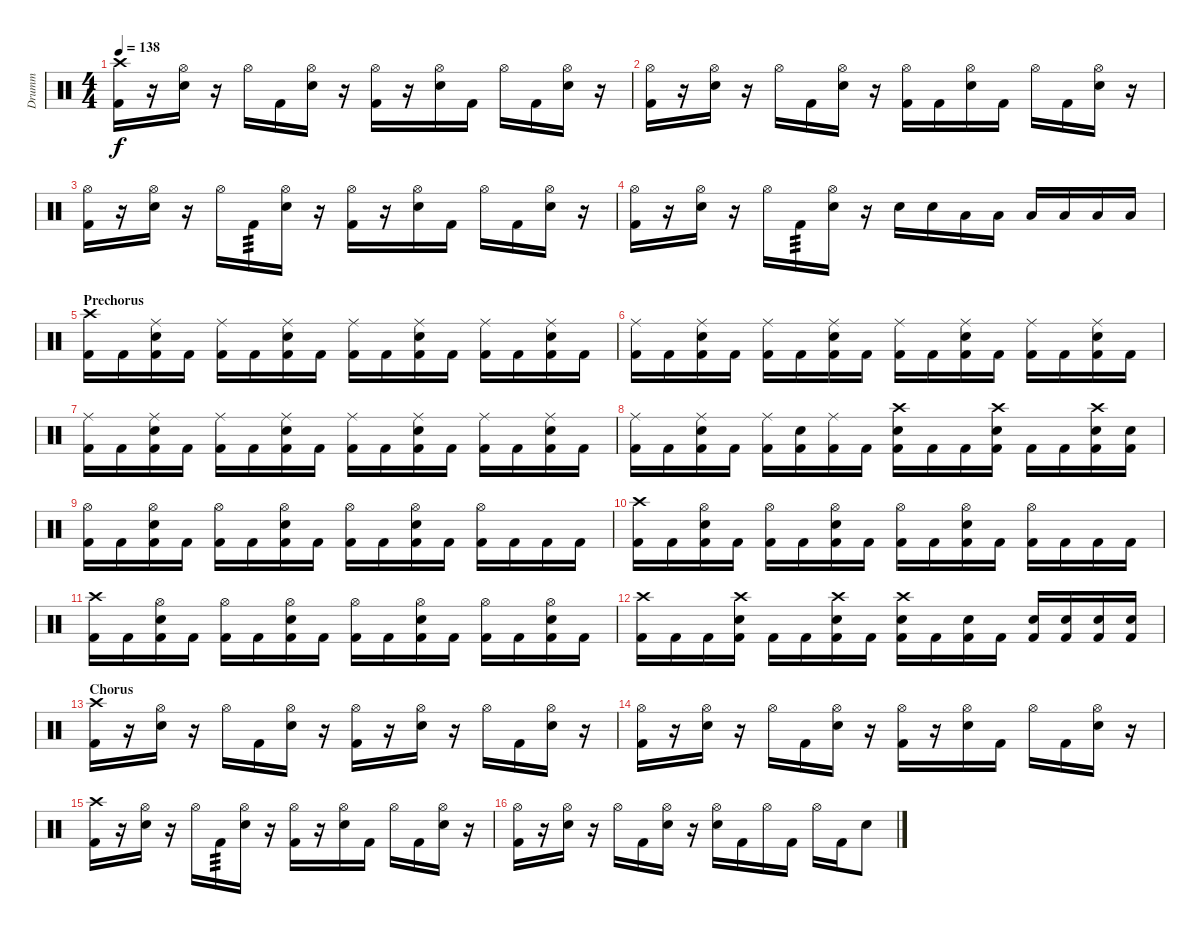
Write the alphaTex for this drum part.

\track ("Drumm" "Drumm") {instrument percussion}
\staff {score}
\articulation defaults
\ts (4 4)
\tempo 138
\clef neutral
\ks c
("Crash high (hit)" "Kick (hit) 2").16{dy f} r.16 ("Hi-Hat (open)" "Snare (hit) 2").16 r.16 "Hi-Hat (open)".16 "Kick (hit) 2".16 ("Hi-Hat (open)" "Snare (hit) 2").16 r.16 ("Hi-Hat (open)" "Kick (hit) 2").16 r.16 ("Hi-Hat (open)" "Snare (hit) 2").16 "Kick (hit) 2".16 "Hi-Hat (open)".16 "Kick (hit) 2".16 ("Hi-Hat (open)" "Snare (hit) 2").16 r.16 |
("Hi-Hat (open)" "Kick (hit) 2").16 r.16 ("Hi-Hat (open)" "Snare (hit) 2").16 r.16 "Hi-Hat (open)".16 "Kick (hit) 2".16 ("Hi-Hat (open)" "Snare (hit) 2").16 r.16 ("Hi-Hat (open)" "Kick (hit) 2").16 "Kick (hit) 2".16 ("Hi-Hat (open)" "Snare (hit) 2").16 "Kick (hit) 2".16 "Hi-Hat (open)".16 "Kick (hit) 2".16 ("Hi-Hat (open)" "Snare (hit) 2").16 r.16 |
("Hi-Hat (open)" "Kick (hit) 2").16 r.16 ("Hi-Hat (open)" "Snare (hit) 2").16 r.16 "Hi-Hat (open)".16 "Kick (hit) 2".16{tp 3} ("Hi-Hat (open)" "Snare (hit) 2").16 r.16 ("Hi-Hat (open)" "Kick (hit) 2").16 r.16 ("Hi-Hat (open)" "Snare (hit) 2").16 "Kick (hit) 2".16 "Hi-Hat (open)".16 "Kick (hit) 2".16 ("Hi-Hat (open)" "Snare (hit) 2").16 r.16 |
("Hi-Hat (open)" "Kick (hit) 2").16 r.16 ("Hi-Hat (open)" "Snare (hit) 2").16 r.16 "Hi-Hat (open)".16 "Kick (hit) 2".16{tp 3} ("Hi-Hat (open)" "Snare (hit) 2").16 r.16 "Snare (hit) 2".16 "Snare (hit) 2".16 "Low Floor Tom (hit)".16 "Low Floor Tom (hit)".16 "Low Floor Tom (hit)".16 "Low Floor Tom (hit)".16 "Low Floor Tom (hit)".16 "Low Floor Tom (hit)".16 |
\section ("" "Prechorus")
("Crash high (hit)" "Kick (hit) 2").16 "Kick (hit) 2".16 ("Ride (middle)" "Snare (hit) 2" "Kick (hit) 2").16 "Kick (hit) 2".16 ("Ride (middle)" "Kick (hit) 2").16 "Kick (hit) 2".16 ("Ride (middle)" "Snare (hit) 2" "Kick (hit) 2").16 "Kick (hit) 2".16 ("Ride (middle)" "Kick (hit) 2").16 "Kick (hit) 2".16 ("Ride (middle)" "Snare (hit) 2" "Kick (hit) 2").16 "Kick (hit) 2".16 ("Ride (middle)" "Kick (hit) 2").16 "Kick (hit) 2".16 ("Ride (middle)" "Snare (hit) 2" "Kick (hit) 2").16 "Kick (hit) 2".16 |
("Ride (middle)" "Kick (hit) 2").16 "Kick (hit) 2".16 ("Ride (middle)" "Snare (hit) 2" "Kick (hit) 2").16 "Kick (hit) 2".16 ("Ride (middle)" "Kick (hit) 2").16 "Kick (hit) 2".16 ("Ride (middle)" "Snare (hit) 2" "Kick (hit) 2").16 "Kick (hit) 2".16 ("Ride (middle)" "Kick (hit) 2").16 "Kick (hit) 2".16 ("Ride (middle)" "Snare (hit) 2" "Kick (hit) 2").16 "Kick (hit) 2".16 ("Ride (middle)" "Kick (hit) 2").16 "Kick (hit) 2".16 ("Ride (middle)" "Snare (hit) 2" "Kick (hit) 2").16 "Kick (hit) 2".16 |
("Ride (middle)" "Kick (hit) 2").16 "Kick (hit) 2".16 ("Ride (middle)" "Snare (hit) 2" "Kick (hit) 2").16 "Kick (hit) 2".16 ("Ride (middle)" "Kick (hit) 2").16 "Kick (hit) 2".16 ("Ride (middle)" "Snare (hit) 2" "Kick (hit) 2").16 "Kick (hit) 2".16 ("Ride (middle)" "Kick (hit) 2").16 "Kick (hit) 2".16 ("Ride (middle)" "Snare (hit) 2" "Kick (hit) 2").16 "Kick (hit) 2".16 ("Ride (middle)" "Kick (hit) 2").16 "Kick (hit) 2".16 ("Ride (middle)" "Snare (hit) 2" "Kick (hit) 2").16 "Kick (hit) 2".16 |
("Ride (middle)" "Kick (hit) 2").16 "Kick (hit) 2".16 ("Ride (middle)" "Snare (hit) 2" "Kick (hit) 2").16 "Kick (hit) 2".16 ("Ride (middle)" "Kick (hit) 2").16 ("Snare (hit) 2" "Kick (hit) 2").16 ("Ride (middle)" "Kick (hit) 2").16 "Kick (hit) 2".16 ("Crash high (hit)" "Snare (hit) 2" "Kick (hit) 2").16 "Kick (hit) 2".16 "Kick (hit) 2".16 ("Crash high (hit)" "Snare (hit) 2" "Kick (hit) 2").16 "Kick (hit) 2".16 "Kick (hit) 2".16 ("Crash high (hit)" "Snare (hit) 2" "Kick (hit) 2").16 ("Snare (hit) 2" "Kick (hit) 2").16 |
("Hi-Hat (open)" "Kick (hit) 2").16 "Kick (hit) 2".16 ("Hi-Hat (open)" "Snare (hit) 2" "Kick (hit) 2").16 "Kick (hit) 2".16 ("Hi-Hat (open)" "Kick (hit) 2").16 "Kick (hit) 2".16 ("Hi-Hat (open)" "Snare (hit) 2" "Kick (hit) 2").16 "Kick (hit) 2".16 ("Hi-Hat (open)" "Kick (hit) 2").16 "Kick (hit) 2".16 ("Hi-Hat (open)" "Snare (hit) 2" "Kick (hit) 2").16 "Kick (hit) 2".16 ("Hi-Hat (open)" "Kick (hit) 2").16 "Kick (hit) 2".16 "Kick (hit) 2".16 "Kick (hit) 2".16 |
("Crash high (hit)" "Kick (hit) 2").16 "Kick (hit) 2".16 ("Hi-Hat (open)" "Snare (hit) 2" "Kick (hit) 2").16 "Kick (hit) 2".16 ("Hi-Hat (open)" "Kick (hit) 2").16 "Kick (hit) 2".16 ("Hi-Hat (open)" "Snare (hit) 2" "Kick (hit) 2").16 "Kick (hit) 2".16 ("Hi-Hat (open)" "Kick (hit) 2").16 "Kick (hit) 2".16 ("Hi-Hat (open)" "Snare (hit) 2" "Kick (hit) 2").16 "Kick (hit) 2".16 ("Hi-Hat (open)" "Kick (hit) 2").16 "Kick (hit) 2".16 "Kick (hit) 2".16 "Kick (hit) 2".16 |
("Crash high (hit)" "Kick (hit) 2").16 "Kick (hit) 2".16 ("Hi-Hat (open)" "Snare (hit) 2" "Kick (hit) 2").16 "Kick (hit) 2".16 ("Hi-Hat (open)" "Kick (hit) 2").16 "Kick (hit) 2".16 ("Hi-Hat (open)" "Snare (hit) 2" "Kick (hit) 2").16 "Kick (hit) 2".16 ("Hi-Hat (open)" "Kick (hit) 2").16 "Kick (hit) 2".16 ("Hi-Hat (open)" "Snare (hit) 2" "Kick (hit) 2").16 "Kick (hit) 2".16 ("Hi-Hat (open)" "Kick (hit) 2").16 "Kick (hit) 2".16 ("Hi-Hat (open)" "Snare (hit) 2" "Kick (hit) 2").16 "Kick (hit) 2".16 |
("Crash high (hit)" "Kick (hit) 2").16 "Kick (hit) 2".16 "Kick (hit) 2".16 ("Crash high (hit)" "Snare (hit) 2" "Kick (hit) 2").16 "Kick (hit) 2".16 "Kick (hit) 2".16 ("Crash high (hit)" "Snare (hit) 2" "Kick (hit) 2").16 "Kick (hit) 2".16 ("Crash high (hit)" "Snare (hit) 2" "Kick (hit) 2").16 "Kick (hit) 2".16 ("Snare (hit) 2" "Kick (hit) 2").16 "Kick (hit) 2".16 ("Snare (hit) 2" "Kick (hit) 2").16 ("Snare (hit) 2" "Kick (hit) 2").16 ("Snare (hit) 2" "Kick (hit) 2").16 ("Snare (hit) 2" "Kick (hit) 2").16 |
\section ("" "Chorus")
("Crash high (hit)" "Kick (hit) 2").16 r.16 ("Hi-Hat (open)" "Snare (hit) 2").16 r.16 "Hi-Hat (open)".16 "Kick (hit) 2".16 ("Hi-Hat (open)" "Snare (hit) 2").16 r.16 ("Hi-Hat (open)" "Kick (hit) 2").16 r.16 ("Hi-Hat (open)" "Snare (hit) 2").16 r.16 "Hi-Hat (open)".16 "Kick (hit) 2".16 ("Hi-Hat (open)" "Snare (hit) 2").16 r.16 |
("Hi-Hat (open)" "Kick (hit) 2").16 r.16 ("Hi-Hat (open)" "Snare (hit) 2").16 r.16 "Hi-Hat (open)".16 "Kick (hit) 2".16 ("Hi-Hat (open)" "Snare (hit) 2").16 r.16 ("Hi-Hat (open)" "Kick (hit) 2").16 r.16 ("Hi-Hat (open)" "Snare (hit) 2").16 "Kick (hit) 2".16 "Hi-Hat (open)".16 "Kick (hit) 2".16 ("Hi-Hat (open)" "Snare (hit) 2").16 r.16 |
("Crash high (hit)" "Kick (hit) 2").16 r.16 ("Hi-Hat (open)" "Snare (hit) 2").16 r.16 "Hi-Hat (open)".16 "Kick (hit) 2".16{tp 3} ("Hi-Hat (open)" "Snare (hit) 2").16 r.16 ("Hi-Hat (open)" "Kick (hit) 2").16 r.16 ("Hi-Hat (open)" "Snare (hit) 2").16 "Kick (hit) 2".16 "Hi-Hat (open)".16 "Kick (hit) 2".16 ("Hi-Hat (open)" "Snare (hit) 2").16 r.16 |
("Hi-Hat (open)" "Kick (hit) 2").16 r.16 ("Hi-Hat (open)" "Snare (hit) 2").16 r.16 "Hi-Hat (open)".16 "Kick (hit) 2".16 ("Hi-Hat (open)" "Snare (hit) 2").16 r.16 ("Hi-Hat (open)" "Snare (hit) 2").16 "Kick (hit) 2".16 "Hi-Hat (open)".16 "Kick (hit) 2".16 "Hi-Hat (open)".16 "Kick (hit) 2".16 "Snare (hit) 2".8
